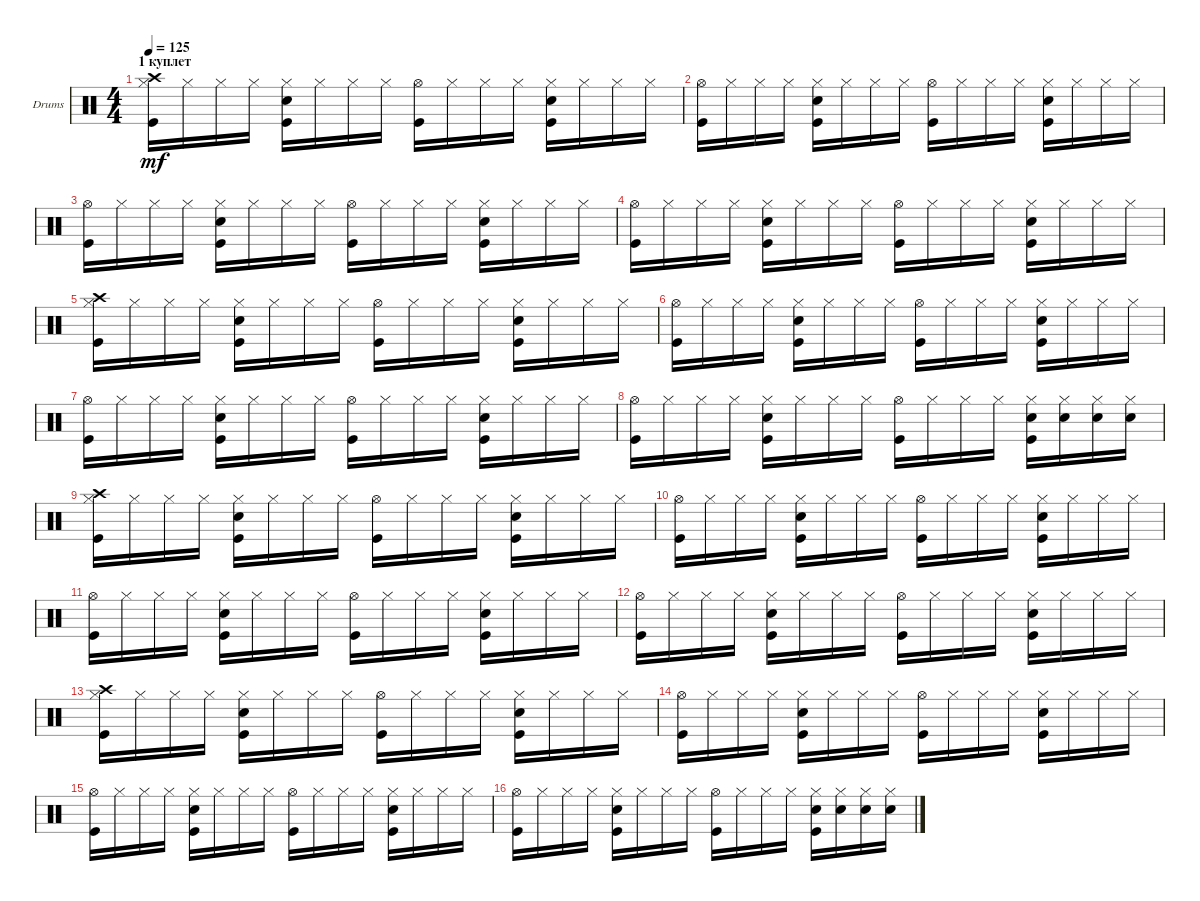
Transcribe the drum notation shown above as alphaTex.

\defaultSystemsLayout 4
\bracketExtendMode groupsimilarinstruments
\firstSystemTrackNameOrientation horizontal
\otherSystemsTrackNameOrientation horizontal
\track ("Drumkit" "Drums") {instrument percussion}
\staff {score}
\articulation defaults
\ts (4 4)
\section ("" "1 куплет")
\tempo 125
\clef neutral
\ks c
("Hi-Hat (closed)" "Kick (hit)" "Crash high (hit)").16{dy mf} "Hi-Hat (closed)".16 "Hi-Hat (closed)".16 "Hi-Hat (closed)".16 ("Hi-Hat (closed)" "Kick (hit)" "Snare (hit) 2").16 "Hi-Hat (closed)".16 "Hi-Hat (closed)".16 "Hi-Hat (closed)".16 ("Hi-Hat (open)" "Kick (hit)").16 "Hi-Hat (closed)".16 "Hi-Hat (closed)".16 "Hi-Hat (closed)".16 ("Hi-Hat (closed)" "Kick (hit)" "Snare (hit) 2").16 "Hi-Hat (closed)".16 "Hi-Hat (closed)".16 "Hi-Hat (closed)".16 |
("Hi-Hat (open)" "Kick (hit)").16 "Hi-Hat (closed)".16 "Hi-Hat (closed)".16 "Hi-Hat (closed)".16 ("Hi-Hat (closed)" "Kick (hit)" "Snare (hit) 2").16 "Hi-Hat (closed)".16 "Hi-Hat (closed)".16 "Hi-Hat (closed)".16 ("Hi-Hat (open)" "Kick (hit)").16 "Hi-Hat (closed)".16 "Hi-Hat (closed)".16 "Hi-Hat (closed)".16 ("Hi-Hat (closed)" "Kick (hit)" "Snare (hit) 2").16 "Hi-Hat (closed)".16 "Hi-Hat (closed)".16 "Hi-Hat (closed)".16 |
("Hi-Hat (open)" "Kick (hit)").16 "Hi-Hat (closed)".16 "Hi-Hat (closed)".16 "Hi-Hat (closed)".16 ("Hi-Hat (closed)" "Kick (hit)" "Snare (hit) 2").16 "Hi-Hat (closed)".16 "Hi-Hat (closed)".16 "Hi-Hat (closed)".16 ("Hi-Hat (open)" "Kick (hit)").16 "Hi-Hat (closed)".16 "Hi-Hat (closed)".16 "Hi-Hat (closed)".16 ("Hi-Hat (closed)" "Kick (hit)" "Snare (hit) 2").16 "Hi-Hat (closed)".16 "Hi-Hat (closed)".16 "Hi-Hat (closed)".16 |
("Hi-Hat (open)" "Kick (hit)").16 "Hi-Hat (closed)".16 "Hi-Hat (closed)".16 "Hi-Hat (closed)".16 ("Hi-Hat (closed)" "Kick (hit)" "Snare (hit) 2").16 "Hi-Hat (closed)".16 "Hi-Hat (closed)".16 "Hi-Hat (closed)".16 ("Hi-Hat (open)" "Kick (hit)").16 "Hi-Hat (closed)".16 "Hi-Hat (closed)".16 "Hi-Hat (closed)".16 ("Hi-Hat (closed)" "Kick (hit)" "Snare (hit) 2").16 "Hi-Hat (closed)".16 "Hi-Hat (closed)".16 "Hi-Hat (closed)".16 |
("Hi-Hat (closed)" "Kick (hit)" "Crash high (hit)").16 "Hi-Hat (closed)".16 "Hi-Hat (closed)".16 "Hi-Hat (closed)".16 ("Hi-Hat (closed)" "Kick (hit)" "Snare (hit) 2").16 "Hi-Hat (closed)".16 "Hi-Hat (closed)".16 "Hi-Hat (closed)".16 ("Hi-Hat (open)" "Kick (hit)").16 "Hi-Hat (closed)".16 "Hi-Hat (closed)".16 "Hi-Hat (closed)".16 ("Hi-Hat (closed)" "Kick (hit)" "Snare (hit) 2").16 "Hi-Hat (closed)".16 "Hi-Hat (closed)".16 "Hi-Hat (closed)".16 |
("Hi-Hat (open)" "Kick (hit)").16 "Hi-Hat (closed)".16 "Hi-Hat (closed)".16 "Hi-Hat (closed)".16 ("Hi-Hat (closed)" "Kick (hit)" "Snare (hit) 2").16 "Hi-Hat (closed)".16 "Hi-Hat (closed)".16 "Hi-Hat (closed)".16 ("Hi-Hat (open)" "Kick (hit)").16 "Hi-Hat (closed)".16 "Hi-Hat (closed)".16 "Hi-Hat (closed)".16 ("Hi-Hat (closed)" "Kick (hit)" "Snare (hit) 2").16 "Hi-Hat (closed)".16 "Hi-Hat (closed)".16 "Hi-Hat (closed)".16 |
("Hi-Hat (open)" "Kick (hit)").16 "Hi-Hat (closed)".16 "Hi-Hat (closed)".16 "Hi-Hat (closed)".16 ("Hi-Hat (closed)" "Kick (hit)" "Snare (hit) 2").16 "Hi-Hat (closed)".16 "Hi-Hat (closed)".16 "Hi-Hat (closed)".16 ("Hi-Hat (open)" "Kick (hit)").16 "Hi-Hat (closed)".16 "Hi-Hat (closed)".16 "Hi-Hat (closed)".16 ("Hi-Hat (closed)" "Kick (hit)" "Snare (hit) 2").16 "Hi-Hat (closed)".16 "Hi-Hat (closed)".16 "Hi-Hat (closed)".16 |
("Hi-Hat (open)" "Kick (hit)").16 "Hi-Hat (closed)".16 "Hi-Hat (closed)".16 "Hi-Hat (closed)".16 ("Hi-Hat (closed)" "Kick (hit)" "Snare (hit) 2").16 "Hi-Hat (closed)".16 "Hi-Hat (closed)".16 "Hi-Hat (closed)".16 ("Hi-Hat (open)" "Kick (hit)").16 "Hi-Hat (closed)".16 "Hi-Hat (closed)".16 "Hi-Hat (closed)".16 ("Hi-Hat (closed)" "Kick (hit)" "Snare (hit) 2").16 ("Hi-Hat (closed)" "Snare (hit) 2").16 ("Hi-Hat (closed)" "Snare (hit) 2").16 ("Hi-Hat (closed)" "Snare (hit) 2").16 |
("Hi-Hat (closed)" "Kick (hit)" "Crash high (hit)").16 "Hi-Hat (closed)".16 "Hi-Hat (closed)".16 "Hi-Hat (closed)".16 ("Hi-Hat (closed)" "Kick (hit)" "Snare (hit) 2").16 "Hi-Hat (closed)".16 "Hi-Hat (closed)".16 "Hi-Hat (closed)".16 ("Hi-Hat (open)" "Kick (hit)").16 "Hi-Hat (closed)".16 "Hi-Hat (closed)".16 "Hi-Hat (closed)".16 ("Hi-Hat (closed)" "Kick (hit)" "Snare (hit) 2").16 "Hi-Hat (closed)".16 "Hi-Hat (closed)".16 "Hi-Hat (closed)".16 |
("Hi-Hat (open)" "Kick (hit)").16 "Hi-Hat (closed)".16 "Hi-Hat (closed)".16 "Hi-Hat (closed)".16 ("Hi-Hat (closed)" "Kick (hit)" "Snare (hit) 2").16 "Hi-Hat (closed)".16 "Hi-Hat (closed)".16 "Hi-Hat (closed)".16 ("Hi-Hat (open)" "Kick (hit)").16 "Hi-Hat (closed)".16 "Hi-Hat (closed)".16 "Hi-Hat (closed)".16 ("Hi-Hat (closed)" "Kick (hit)" "Snare (hit) 2").16 "Hi-Hat (closed)".16 "Hi-Hat (closed)".16 "Hi-Hat (closed)".16 |
("Hi-Hat (open)" "Kick (hit)").16 "Hi-Hat (closed)".16 "Hi-Hat (closed)".16 "Hi-Hat (closed)".16 ("Hi-Hat (closed)" "Kick (hit)" "Snare (hit) 2").16 "Hi-Hat (closed)".16 "Hi-Hat (closed)".16 "Hi-Hat (closed)".16 ("Hi-Hat (open)" "Kick (hit)").16 "Hi-Hat (closed)".16 "Hi-Hat (closed)".16 "Hi-Hat (closed)".16 ("Hi-Hat (closed)" "Kick (hit)" "Snare (hit) 2").16 "Hi-Hat (closed)".16 "Hi-Hat (closed)".16 "Hi-Hat (closed)".16 |
("Hi-Hat (open)" "Kick (hit)").16 "Hi-Hat (closed)".16 "Hi-Hat (closed)".16 "Hi-Hat (closed)".16 ("Hi-Hat (closed)" "Kick (hit)" "Snare (hit) 2").16 "Hi-Hat (closed)".16 "Hi-Hat (closed)".16 "Hi-Hat (closed)".16 ("Hi-Hat (open)" "Kick (hit)").16 "Hi-Hat (closed)".16 "Hi-Hat (closed)".16 "Hi-Hat (closed)".16 ("Hi-Hat (closed)" "Kick (hit)" "Snare (hit) 2").16 "Hi-Hat (closed)".16 "Hi-Hat (closed)".16 "Hi-Hat (closed)".16 |
("Hi-Hat (closed)" "Kick (hit)" "Crash high (hit)").16 "Hi-Hat (closed)".16 "Hi-Hat (closed)".16 "Hi-Hat (closed)".16 ("Hi-Hat (closed)" "Kick (hit)" "Snare (hit) 2").16 "Hi-Hat (closed)".16 "Hi-Hat (closed)".16 "Hi-Hat (closed)".16 ("Hi-Hat (open)" "Kick (hit)").16 "Hi-Hat (closed)".16 "Hi-Hat (closed)".16 "Hi-Hat (closed)".16 ("Hi-Hat (closed)" "Kick (hit)" "Snare (hit) 2").16 "Hi-Hat (closed)".16 "Hi-Hat (closed)".16 "Hi-Hat (closed)".16 |
("Hi-Hat (open)" "Kick (hit)").16 "Hi-Hat (closed)".16 "Hi-Hat (closed)".16 "Hi-Hat (closed)".16 ("Hi-Hat (closed)" "Kick (hit)" "Snare (hit) 2").16 "Hi-Hat (closed)".16 "Hi-Hat (closed)".16 "Hi-Hat (closed)".16 ("Hi-Hat (open)" "Kick (hit)").16 "Hi-Hat (closed)".16 "Hi-Hat (closed)".16 "Hi-Hat (closed)".16 ("Hi-Hat (closed)" "Kick (hit)" "Snare (hit) 2").16 "Hi-Hat (closed)".16 "Hi-Hat (closed)".16 "Hi-Hat (closed)".16 |
("Hi-Hat (open)" "Kick (hit)").16 "Hi-Hat (closed)".16 "Hi-Hat (closed)".16 "Hi-Hat (closed)".16 ("Hi-Hat (closed)" "Kick (hit)" "Snare (hit) 2").16 "Hi-Hat (closed)".16 "Hi-Hat (closed)".16 "Hi-Hat (closed)".16 ("Hi-Hat (open)" "Kick (hit)").16 "Hi-Hat (closed)".16 "Hi-Hat (closed)".16 "Hi-Hat (closed)".16 ("Hi-Hat (closed)" "Kick (hit)" "Snare (hit) 2").16 "Hi-Hat (closed)".16 "Hi-Hat (closed)".16 "Hi-Hat (closed)".16 |
("Hi-Hat (open)" "Kick (hit)").16 "Hi-Hat (closed)".16 "Hi-Hat (closed)".16 "Hi-Hat (closed)".16 ("Hi-Hat (closed)" "Kick (hit)" "Snare (hit) 2").16 "Hi-Hat (closed)".16 "Hi-Hat (closed)".16 "Hi-Hat (closed)".16 ("Hi-Hat (open)" "Kick (hit)").16 "Hi-Hat (closed)".16 "Hi-Hat (closed)".16 "Hi-Hat (closed)".16 ("Hi-Hat (closed)" "Kick (hit)" "Snare (hit) 2").16 ("Hi-Hat (closed)" "Snare (hit) 2").16 ("Hi-Hat (closed)" "Snare (hit) 2").16 ("Hi-Hat (closed)" "Snare (hit) 2").16
